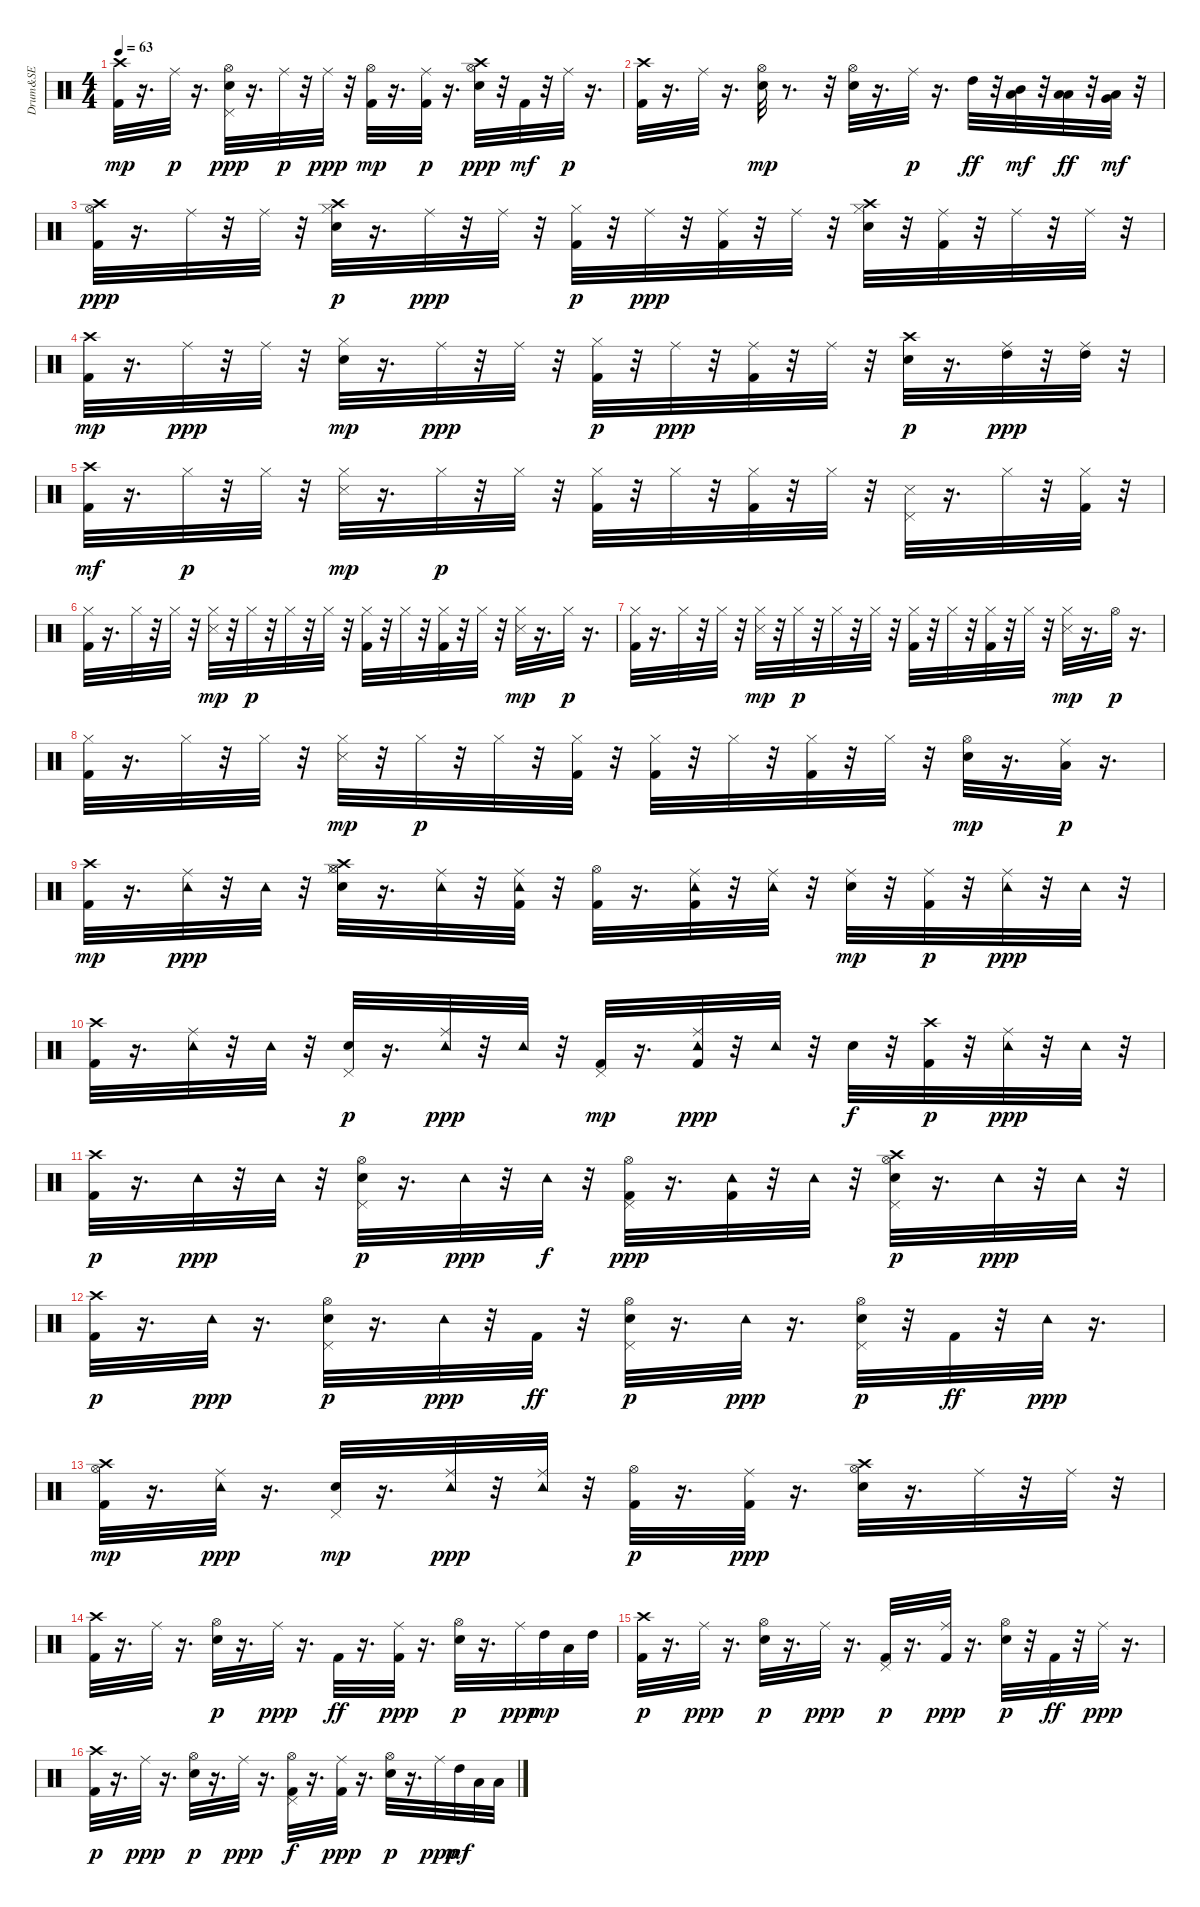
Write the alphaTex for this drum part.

\track ("Drum&SE" "Drum&SE") {instrument percussion}
\staff {score}
\articulation defaults
\ts (4 4)
\tempo 63
\clef neutral
\ks c
("Kick (hit) 2" "Crash high (hit)").32{dy mp} r.16{d} "Ride (middle)".32{dy p} r.16{d} ("Snare (hit) 2" "Pedal Hi-Hat (hit)" "Hi-Hat (open)").32{dy ppp} r.16{d} "Ride (middle)".32{dy p} r.32 "Ride (middle)".32{dy ppp} r.32 ("Kick (hit) 2" "Hi-Hat (open)").32{dy mp} r.16{d} ("Kick (hit) 2" "Ride (middle)").32{dy p} r.16{d} ("Snare (hit) 2" "Hi-Hat (open)" "Crash high (hit)").32{dy ppp} r.32 "Kick (hit) 2".32{dy mf} r.32 "Ride (middle)".32{dy p} r.16{d} |
("Kick (hit) 2" "Crash high (hit)").32 r.16{d} "Ride (middle)".32 r.16{d} ("Snare (hit) 2" "Hi-Hat (open)").32{dy mp} r.8{d} r.32 ("Snare (hit) 2" "Hi-Hat (open)").32 r.16{d} "Ride (middle)".32{dy p} r.16{d} "High Tom (hit)".32{dy ff} r.32 ("Low Tom (hit)" "Mid Tom (hit)").32{dy mf} r.32 ("Low Floor Tom (hit)" "Low Tom (hit)").32{dy ff} r.32 ("Low Floor Tom (hit)" "Very Low Tom (hit)").32{dy mf} r.32 |
("Kick (hit) 2" "Hi-Hat (open)" "Crash high (hit)").32{dy ppp} r.16{d} "Ride (middle)".32 r.32 "Ride (middle)".32 r.32 ("Snare (hit) 2" "Hi-Hat (closed)" "Crash high (hit)").32{dy p} r.16{d} "Ride (middle)".32{dy ppp} r.32 "Ride (middle)".32 r.32 ("Kick (hit) 2" "Hi-Hat (closed)").32{dy p} r.32 "Ride (middle)".32{dy ppp} r.32 ("Kick (hit) 2" "Ride (middle)").32 r.32 "Ride (middle)".32 r.32 ("Snare (hit) 2" "Hi-Hat (closed)" "Crash high (hit)").32 r.32 ("Kick (hit) 2" "Ride (middle)").32 r.32 "Ride (middle)".32 r.32 "Ride (middle)".32 r.32 |
("Kick (hit) 2" "Crash high (hit)").32{dy mp} r.16{d} "Ride (middle)".32{dy ppp} r.32 "Ride (middle)".32 r.32 ("Snare (hit) 2" "Hi-Hat (closed)").32{dy mp} r.16{d} "Ride (middle)".32{dy ppp} r.32 "Ride (middle)".32 r.32 ("Kick (hit) 2" "Hi-Hat (closed)").32{dy p} r.32 "Ride (middle)".32{dy ppp} r.32 ("Kick (hit) 2" "Ride (middle)").32 r.32 "Ride (middle)".32 r.32 ("Snare (hit) 2" "Crash high (hit)").32{dy p} r.16{d} ("High Tom (hit)" "Ride (middle)").32{dy ppp} r.32 ("High Tom (hit)" "Ride (middle)").32 r.32 |
("Kick (hit) 2" "Crash high (hit)").32{dy mf} r.16{d} "Hi-Hat (closed)".32{dy p} r.32 "Hi-Hat (closed)".32 r.32 ("Snare (side stick) 3" "Hi-Hat (closed)").32{dy mp} r.16{d} "Hi-Hat (closed)".32{dy p} r.32 "Hi-Hat (closed)".32 r.32 ("Kick (hit) 2" "Hi-Hat (closed)").32 r.32 "Hi-Hat (closed)".32 r.32 ("Kick (hit) 2" "Hi-Hat (closed)").32 r.32 "Hi-Hat (closed)".32 r.32 ("Snare (side stick) 3" "Pedal Hi-Hat (hit)").32 r.16{d} "Hi-Hat (closed)".32 r.32 ("Kick (hit) 2" "Hi-Hat (closed)").32 r.32 |
("Kick (hit) 2" "Hi-Hat (closed)").32 r.16{d} "Hi-Hat (closed)".32 r.32 "Hi-Hat (closed)".32 r.32 ("Snare (side stick) 3" "Hi-Hat (closed)").32{dy mp} r.32 "Hi-Hat (closed)".32{dy p} r.32 "Hi-Hat (closed)".32 r.32 "Hi-Hat (closed)".32 r.32 ("Kick (hit) 2" "Hi-Hat (closed)").32 r.32 "Hi-Hat (closed)".32 r.32 ("Kick (hit) 2" "Hi-Hat (closed)").32 r.32 "Hi-Hat (closed)".32 r.32 ("Snare (side stick) 3" "Hi-Hat (closed)").32{dy mp} r.16{d} "Hi-Hat (closed)".32{dy p} r.16{d} |
("Kick (hit) 2" "Hi-Hat (closed)").32 r.16{d} "Hi-Hat (closed)".32 r.32 "Hi-Hat (closed)".32 r.32 ("Snare (side stick) 3" "Hi-Hat (closed)").32{dy mp} r.32 "Hi-Hat (closed)".32{dy p} r.32 "Hi-Hat (closed)".32 r.32 "Hi-Hat (closed)".32 r.32 ("Kick (hit) 2" "Hi-Hat (closed)").32 r.32 "Hi-Hat (closed)".32 r.32 ("Kick (hit) 2" "Hi-Hat (closed)").32 r.32 "Hi-Hat (closed)".32 r.32 ("Snare (side stick) 3" "Hi-Hat (closed)").32{dy mp} r.16{d} "Hi-Hat (open)".32{dy p} r.16{d} |
("Kick (hit) 2" "Hi-Hat (closed)").32 r.16{d} "Hi-Hat (closed)".32 r.32 "Hi-Hat (closed)".32 r.32 ("Snare (side stick) 3" "Hi-Hat (closed)").32{dy mp} r.32 "Hi-Hat (closed)".32{dy p} r.32 "Hi-Hat (closed)".32 r.32 ("Kick (hit) 2" "Hi-Hat (closed)").32 r.32 ("Kick (hit) 2" "Hi-Hat (closed)").32 r.32 "Hi-Hat (closed)".32 r.32 ("Kick (hit) 2" "Hi-Hat (closed)").32 r.32 "Hi-Hat (closed)".32 r.32 ("Snare (hit) 2" "Hi-Hat (open)").32{dy mp} r.16{d} ("Low Floor Tom (hit)" "Ride (middle)").32{dy p} r.16{d} |
("Kick (hit) 2" "Crash high (hit)").32{dy mp} r.16{d} ("Ride (middle)" "Tambourine (hit)").32{dy ppp} r.32 "Tambourine (hit)".32 r.32 ("Snare (hit) 2" "Hi-Hat (closed)" "Hi-Hat (open)" "Crash high (hit)").32 r.16{d} ("Ride (middle)" "Tambourine (hit)").32 r.32 ("Kick (hit) 2" "Ride (middle)" "Tambourine (hit)").32 r.32 ("Kick (hit) 2" "Hi-Hat (open)").32 r.16{d} ("Kick (hit) 2" "Ride (middle)" "Tambourine (hit)").32 r.32 ("Ride (middle)" "Tambourine (hit)").32 r.32 ("Snare (hit) 2" "Ride (middle)").32{dy mp} r.32 ("Kick (hit) 2" "Ride (middle)").32{dy p} r.32 ("Ride (middle)" "Tambourine (hit)").32{dy ppp} r.32 "Tambourine (hit)".32 r.32 |
("Kick (hit) 2" "Crash high (hit)").32 r.16{d} ("Ride (middle)" "Tambourine (hit)").32 r.32 "Tambourine (hit)".32 r.32 ("Snare (hit) 2" "Pedal Hi-Hat (hit)").32{dy p} r.16{d} ("Ride (middle)" "Tambourine (hit)").32{dy ppp} r.32 "Tambourine (hit)".32 r.32 ("Kick (hit) 2" "Pedal Hi-Hat (hit)").32{dy mp} r.16{d} ("Kick (hit) 2" "Ride (middle)" "Tambourine (hit)").32{dy ppp} r.32 "Tambourine (hit)".32 r.32 "Snare (hit) 2".32{dy f} r.32 ("Kick (hit) 2" "Crash high (hit)").32{dy p} r.32 ("Ride (middle)" "Tambourine (hit)").32{dy ppp} r.32 "Tambourine (hit)".32 r.32 |
("Kick (hit) 2" "Crash high (hit)").32{dy p} r.16{d} "Tambourine (hit)".32{dy ppp} r.32 "Tambourine (hit)".32 r.32 ("Snare (hit) 2" "Pedal Hi-Hat (hit)" "Hi-Hat (open)").32{dy p} r.16{d} "Tambourine (hit)".32{dy ppp} r.32 "Tambourine (hit)".32{dy f} r.32 ("Kick (hit) 2" "Pedal Hi-Hat (hit)" "Hi-Hat (open)").32{dy ppp} r.16{d} ("Kick (hit) 2" "Tambourine (hit)").32 r.32 "Tambourine (hit)".32 r.32 ("Snare (hit) 2" "Pedal Hi-Hat (hit)" "Hi-Hat (open)" "Crash high (hit)").32{dy p} r.16{d} "Tambourine (hit)".32{dy ppp} r.32 "Tambourine (hit)".32 r.32 |
("Kick (hit) 2" "Crash high (hit)").32{dy p} r.16{d} "Tambourine (hit)".32{dy ppp} r.16{d} ("Snare (hit) 2" "Pedal Hi-Hat (hit)" "Hi-Hat (open)").32{dy p} r.16{d} "Tambourine (hit)".32{dy ppp} r.32 "Kick (hit) 2".32{dy ff} r.32 ("Snare (hit) 2" "Pedal Hi-Hat (hit)" "Hi-Hat (open)").32{dy p} r.16{d} "Tambourine (hit)".32{dy ppp} r.16{d} ("Snare (hit) 2" "Pedal Hi-Hat (hit)" "Hi-Hat (open)").32{dy p} r.32 "Kick (hit) 2".32{dy ff} r.32 "Tambourine (hit)".32{dy ppp} r.16{d} |
("Kick (hit) 2" "Hi-Hat (open)" "Crash high (hit)").32{dy mp} r.16{d} ("Ride (middle)" "Tambourine (hit)").32{dy ppp} r.16{d} ("Snare (hit) 2" "Pedal Hi-Hat (hit)").32{dy mp} r.16{d} ("Ride (middle)" "Tambourine (hit)").32{dy ppp} r.32 ("Ride (middle)" "Tambourine (hit)").32 r.32 ("Kick (hit) 2" "Hi-Hat (open)").32{dy p} r.16{d} ("Kick (hit) 2" "Ride (middle)").32{dy ppp} r.16{d} ("Snare (hit) 2" "Hi-Hat (open)" "Crash high (hit)").32 r.16{d} "Ride (middle)".32 r.32 "Ride (middle)".32 r.32 |
("Kick (hit) 2" "Crash high (hit)").32 r.16{d} "Ride (middle)".32 r.16{d} ("Snare (hit) 2" "Hi-Hat (open)").32{dy p} r.16{d} "Ride (middle)".32{dy ppp} r.16{d} "Kick (hit) 2".32{dy ff} r.16{d} ("Kick (hit) 2" "Ride (middle)").32{dy ppp} r.16{d} ("Snare (hit) 2" "Hi-Hat (open)").32{dy p} r.16{d} "Ride (middle)".32{dy ppp} "High Tom (hit)".32{dy mp} "Low Tom (hit)".32 "High Tom (hit)".32 |
("Kick (hit) 2" "Crash high (hit)").32{dy p} r.16{d} "Ride (middle)".32{dy ppp} r.16{d} ("Snare (hit) 2" "Hi-Hat (open)").32{dy p} r.16{d} "Ride (middle)".32{dy ppp} r.16{d} ("Kick (hit) 2" "Pedal Hi-Hat (hit)").32{dy p} r.16{d} ("Kick (hit) 2" "Ride (middle)").32{dy ppp} r.16{d} ("Snare (hit) 2" "Hi-Hat (open)").32{dy p} r.32 "Kick (hit) 2".32{dy ff} r.32 "Ride (middle)".32{dy ppp} r.16{d} |
("Kick (hit) 2" "Crash high (hit)").32{dy p} r.16{d} "Ride (middle)".32{dy ppp} r.16{d} ("Snare (hit) 2" "Hi-Hat (open)").32{dy p} r.16{d} "Ride (middle)".32{dy ppp} r.16{d} ("Kick (hit) 2" "Pedal Hi-Hat (hit)" "Hi-Hat (open)").32{dy f} r.16{d} ("Kick (hit) 2" "Ride (middle)").32{dy ppp} r.16{d} ("Snare (hit) 2" "Hi-Hat (open)").32{dy p} r.16{d} "Ride (middle)".32{dy ppp} "High Tom (hit)".32{dy mf} "Low Tom (hit)".32 "Low Floor Tom (hit)".32
